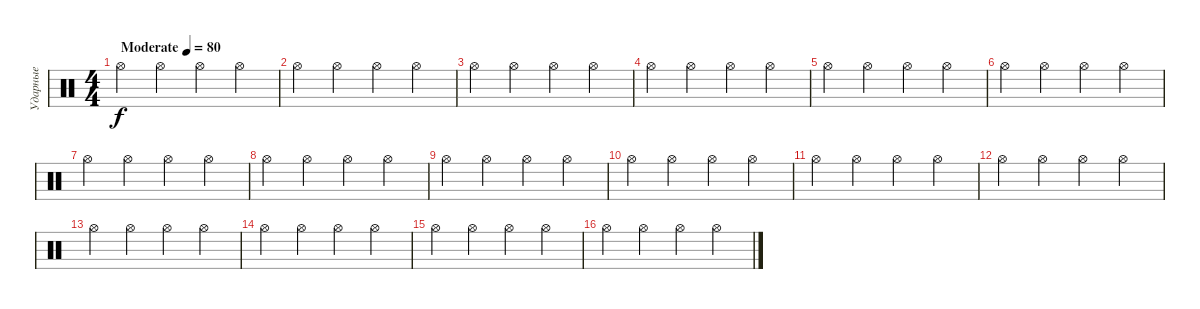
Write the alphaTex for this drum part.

\track ("Ударные" "Ударные") {instrument percussion}
\staff {score}
\articulation defaults
\ts (4 4)
\tempo (80 "Moderate")
\clef neutral
\ks c "Hi-Hat (open)".4{dy f} "Hi-Hat (open)".4 "Hi-Hat (open)".4 "Hi-Hat (open)".4
|
"Hi-Hat (open)".4 "Hi-Hat (open)".4 "Hi-Hat (open)".4 "Hi-Hat (open)".4 |
"Hi-Hat (open)".4 "Hi-Hat (open)".4 "Hi-Hat (open)".4 "Hi-Hat (open)".4 |
"Hi-Hat (open)".4 "Hi-Hat (open)".4 "Hi-Hat (open)".4 "Hi-Hat (open)".4 |
"Hi-Hat (open)".4 "Hi-Hat (open)".4 "Hi-Hat (open)".4 "Hi-Hat (open)".4 |
"Hi-Hat (open)".4 "Hi-Hat (open)".4 "Hi-Hat (open)".4 "Hi-Hat (open)".4 |
"Hi-Hat (open)".4 "Hi-Hat (open)".4 "Hi-Hat (open)".4 "Hi-Hat (open)".4 |
"Hi-Hat (open)".4 "Hi-Hat (open)".4 "Hi-Hat (open)".4 "Hi-Hat (open)".4 |
"Hi-Hat (open)".4 "Hi-Hat (open)".4 "Hi-Hat (open)".4 "Hi-Hat (open)".4 |
"Hi-Hat (open)".4 "Hi-Hat (open)".4 "Hi-Hat (open)".4 "Hi-Hat (open)".4 |
"Hi-Hat (open)".4 "Hi-Hat (open)".4 "Hi-Hat (open)".4 "Hi-Hat (open)".4 |
"Hi-Hat (open)".4 "Hi-Hat (open)".4 "Hi-Hat (open)".4 "Hi-Hat (open)".4 |
"Hi-Hat (open)".4 "Hi-Hat (open)".4 "Hi-Hat (open)".4 "Hi-Hat (open)".4 |
"Hi-Hat (open)".4 "Hi-Hat (open)".4 "Hi-Hat (open)".4 "Hi-Hat (open)".4 |
"Hi-Hat (open)".4 "Hi-Hat (open)".4 "Hi-Hat (open)".4 "Hi-Hat (open)".4 |
"Hi-Hat (open)".4 "Hi-Hat (open)".4 "Hi-Hat (open)".4 "Hi-Hat (open)".4
